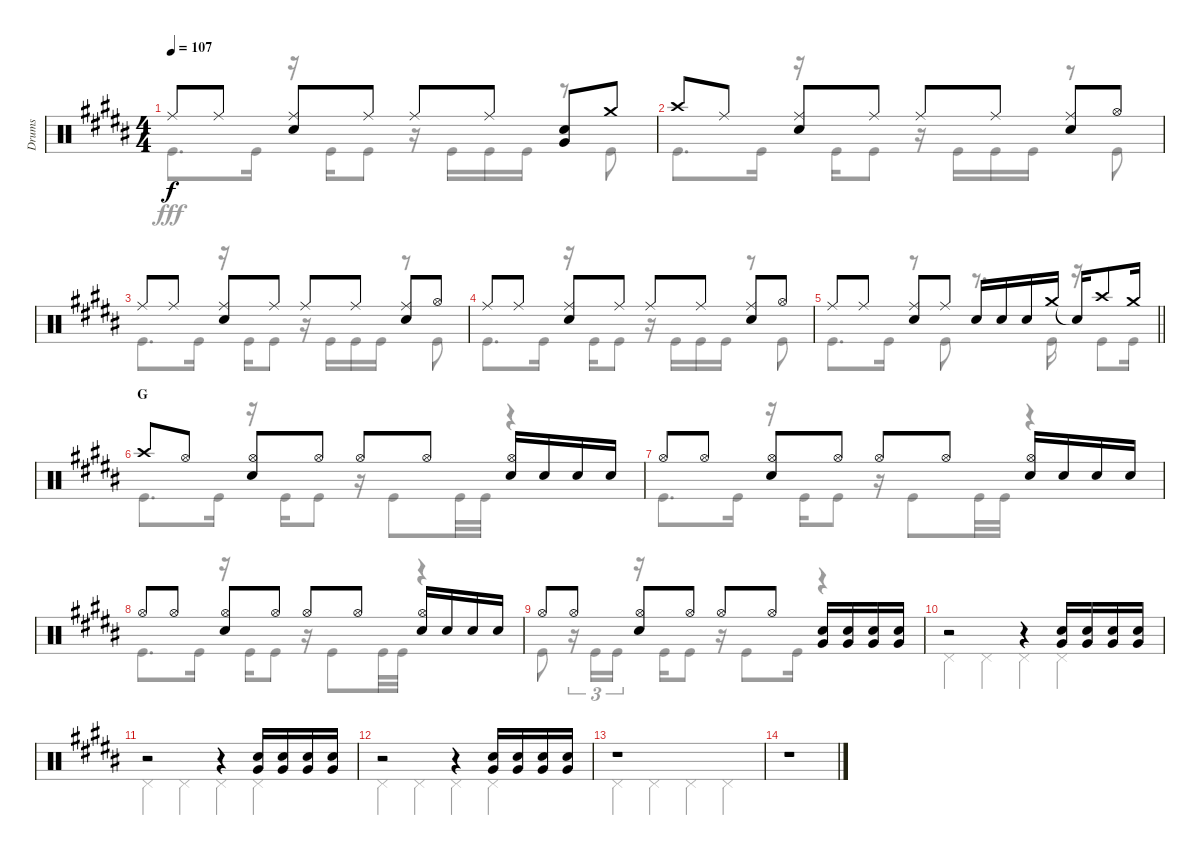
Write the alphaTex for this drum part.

\track ("Drums" "Drums") {instrument percussion}
\staff {score}
\articulation defaults
\voice
\ts (4 4)
\tempo 107
\clef neutral
\ks b "Ride (middle)".8{dy f} "Ride (middle)".8
("Ride (middle)" "Snare (hit) 2").8 "Ride (middle)".8 "Ride (middle)".8 "Ride (middle)".8 ("Snare (hit) 2" "Very Low Tom (hit)").8 "Crash medium (hit)".8 |
"Crash high (hit)".8 "Ride (middle)".8 ("Ride (middle)" "Snare (hit) 2").8 "Ride (middle)".8 "Ride (middle)".8 "Ride (middle)".8 ("Ride (middle)" "Snare (hit) 2").8 "Hi-Hat (open)".8 |
"Ride (middle)".8 "Ride (middle)".8 ("Ride (middle)" "Snare (hit) 2").8 "Ride (middle)".8 "Ride (middle)".8 "Ride (middle)".8 ("Ride (middle)" "Snare (hit) 2").8 "Hi-Hat (open)".8 |
"Ride (middle)".8 "Ride (middle)".8 ("Ride (middle)" "Snare (hit) 2").8 "Ride (middle)".8 "Ride (middle)".8 "Ride (middle)".8 ("Ride (middle)" "Snare (hit) 2").8 "Hi-Hat (open)".8 |
\barLineRight lightlight "Ride (middle)".8 "Ride (middle)".8
("Ride (middle)" "Snare (hit) 2").8 "Ride (middle)".8 "Snare (hit) 2".16 "Snare (hit) 2".16 "Snare (hit) 2".16 "Crash medium (hit)".16 "Snare (hit)"{t}.16 "Crash high (hit)".8 "Crash medium (hit)".16 |
\section ("" "G")
"Crash high (hit)".8 "Hi-Hat (open)".8 ("Hi-Hat (open)" "Snare (hit) 2").8 "Hi-Hat (open)".8 "Hi-Hat (open)".8 "Hi-Hat (open)".8 ("Hi-Hat (open)" "Snare (hit) 2").16 "Snare (hit) 2".16 "Snare (hit) 2".16 "Snare (hit) 2".16 |
"Hi-Hat (open)".8 "Hi-Hat (open)".8 ("Hi-Hat (open)" "Snare (hit) 2").8 "Hi-Hat (open)".8 "Hi-Hat (open)".8 "Hi-Hat (open)".8 ("Hi-Hat (open)" "Snare (hit) 2").16 "Snare (hit) 2".16 "Snare (hit) 2".16 "Snare (hit) 2".16 |
"Hi-Hat (open)".8 "Hi-Hat (open)".8 ("Hi-Hat (open)" "Snare (hit) 2").8 "Hi-Hat (open)".8 "Hi-Hat (open)".8 "Hi-Hat (open)".8 ("Hi-Hat (open)" "Snare (hit) 2").16 "Snare (hit) 2".16 "Snare (hit) 2".16 "Snare (hit) 2".16 |
"Hi-Hat (open)".8 "Hi-Hat (open)".8 ("Hi-Hat (open)" "Snare (hit) 2").8 "Hi-Hat (open)".8 "Hi-Hat (open)".8 "Hi-Hat (open)".8 ("Snare (hit) 2" "Very Low Tom (hit)").16 ("Snare (hit) 2" "Very Low Tom (hit)").16 ("Snare (hit) 2" "Very Low Tom (hit)").16 ("Snare (hit) 2" "Very Low Tom (hit)").16 |
r.2 r.4 ("Snare (hit) 2" "Very Low Tom (hit)").16 ("Snare (hit) 2" "Very Low Tom (hit)").16 ("Snare (hit) 2" "Very Low Tom (hit)").16 ("Snare (hit) 2" "Very Low Tom (hit)").16 |
r.2 r.4 ("Snare (hit) 2" "Very Low Tom (hit)").16 ("Snare (hit) 2" "Very Low Tom (hit)").16 ("Snare (hit) 2" "Very Low Tom (hit)").16 ("Snare (hit) 2" "Very Low Tom (hit)").16 |
r.2 r.4 ("Snare (hit) 2" "Very Low Tom (hit)").16 ("Snare (hit) 2" "Very Low Tom (hit)").16 ("Snare (hit) 2" "Very Low Tom (hit)").16 ("Snare (hit) 2" "Very Low Tom (hit)").16 |
r.1 |
r.1
\voice
\clef neutral
\ottava regular
\simile none
\ks b "Kick (hit)".8{d dy fff} "Kick (hit)".16
r.16 "Kick (hit)".16 "Kick (hit)".8 r.16 "Kick (hit)".16 "Kick (hit)".16 "Kick (hit)".16 r.8 "Kick (hit)".8 |
"Kick (hit)".8{d} "Kick (hit)".16 r.16 "Kick (hit)".16 "Kick (hit)".8 r.16 "Kick (hit)".16 "Kick (hit)".16 "Kick (hit)".16 r.8 "Kick (hit)".8 |
"Kick (hit)".8{d} "Kick (hit)".16 r.16 "Kick (hit)".16 "Kick (hit)".8 r.16 "Kick (hit)".16 "Kick (hit)".16 "Kick (hit)".16 r.8 "Kick (hit)".8 |
"Kick (hit)".8{d} "Kick (hit)".16 r.16 "Kick (hit)".16 "Kick (hit)".8 r.16 "Kick (hit)".16 "Kick (hit)".16 "Kick (hit)".16 r.8 "Kick (hit)".8 |
\barLineRight lightlight "Kick (hit)".8{d} "Kick (hit)".16
r.8 "Kick (hit)".8 r.8{d} "Kick (hit)".16 r.16 "Kick (hit)".8 "Kick (hit)".16 |
"Kick (hit)".8{d} "Kick (hit)".16 r.16 "Kick (hit)".16 "Kick (hit)".8 r.16 "Kick (hit)".8 "Kick (hit)".32 "Kick (hit)".32 r.4 |
"Kick (hit)".8{d} "Kick (hit)".16 r.16 "Kick (hit)".16 "Kick (hit)".8 r.16 "Kick (hit)".8 "Kick (hit)".32 "Kick (hit)".32 r.4 |
"Kick (hit)".8{d} "Kick (hit)".16 r.16 "Kick (hit)".16 "Kick (hit)".8 r.16 "Kick (hit)".8 "Kick (hit)".32 "Kick (hit)".32 r.4 |
"Kick (hit)".8 r.16{tu (3 2)} "Kick (hit)".16{tu (3 2)} "Kick (hit)".16{tu (3 2)} r.16 "Kick (hit)".16 "Kick (hit)".8 r.16 "Kick (hit)".8 "Kick (hit)".16 r.4 |
"Pedal Hi-Hat (hit)".4 "Pedal Hi-Hat (hit)".4 "Pedal Hi-Hat (hit)".4 "Pedal Hi-Hat (hit)".4 |
"Pedal Hi-Hat (hit)".4 "Pedal Hi-Hat (hit)".4 "Pedal Hi-Hat (hit)".4 "Pedal Hi-Hat (hit)".4 |
"Pedal Hi-Hat (hit)".4 "Pedal Hi-Hat (hit)".4 "Pedal Hi-Hat (hit)".4 "Pedal Hi-Hat (hit)".4 |
"Pedal Hi-Hat (hit)".4 "Pedal Hi-Hat (hit)".4 "Pedal Hi-Hat (hit)".4 "Pedal Hi-Hat (hit)".4 |
r.1
